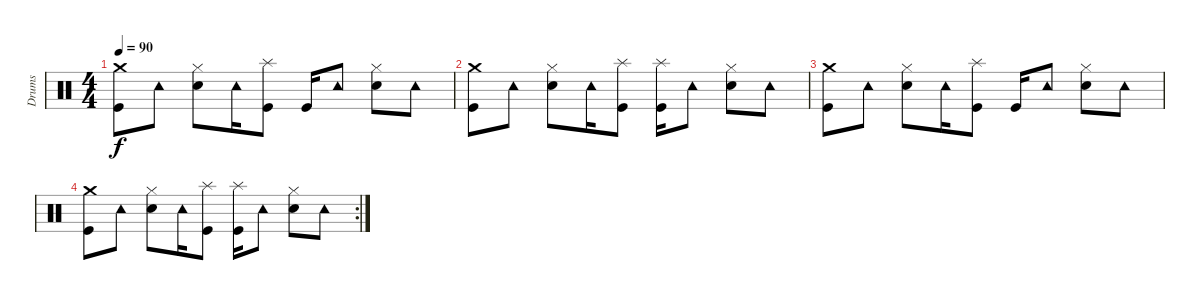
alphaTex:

\track ("Drums" "Drums") {instrument percussion}
\staff {score}
\articulation defaults
\ts (4 4)
\tempo 90
\clef neutral
\ks c
("Crash medium (hit)" "Kick (hit)").8{dy f} "Tambourine (hit)".8 ("Hi-Hat (closed)" "Electric Snare (hit)").8 "Tambourine (hit)".16 ("Splash (hit)" "Kick (hit)").8 "Kick (hit)".16 "Tambourine (hit)".8 ("Hi-Hat (closed)" "Electric Snare (hit)").8 "Tambourine (hit)".8 |
("Crash medium (hit)" "Kick (hit)").8 "Tambourine (hit)".8 ("Hi-Hat (closed)" "Electric Snare (hit)").8 "Tambourine (hit)".16 ("Splash (hit)" "Kick (hit)").8 ("Splash (hit)" "Kick (hit)").16 "Tambourine (hit)".8 ("Hi-Hat (closed)" "Electric Snare (hit)").8 "Tambourine (hit)".8 |
("Crash medium (hit)" "Kick (hit)").8 "Tambourine (hit)".8 ("Hi-Hat (closed)" "Electric Snare (hit)").8 "Tambourine (hit)".16 ("Splash (hit)" "Kick (hit)").8 "Kick (hit)".16 "Tambourine (hit)".8 ("Hi-Hat (closed)" "Electric Snare (hit)").8 "Tambourine (hit)".8 |
\rc 2
("Crash medium (hit)" "Kick (hit)").8 "Tambourine (hit)".8 ("Hi-Hat (closed)" "Electric Snare (hit)").8 "Tambourine (hit)".16 ("Splash (hit)" "Kick (hit)").8 ("Splash (hit)" "Kick (hit)").16 "Tambourine (hit)".8 ("Hi-Hat (closed)" "Electric Snare (hit)").8 "Tambourine (hit)".8
